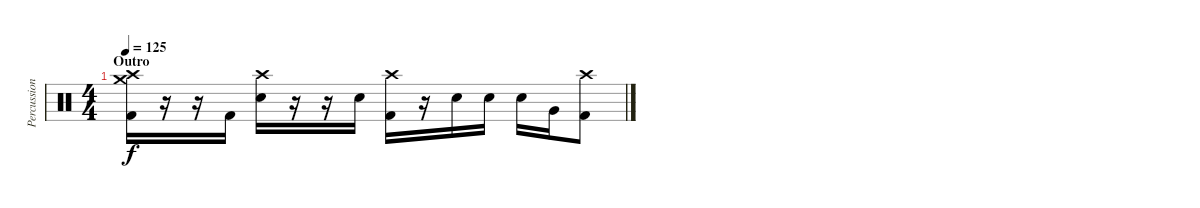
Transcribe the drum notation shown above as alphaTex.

\track ("Percussion" "Percussion") {instrument percussion}
\staff {score}
\articulation defaults
\ts (4 4)
\section ("" "Outro")
\tempo 125
\clef neutral
\ks c
("Crash medium (hit)" "Crash high (hit)" "Kick (hit) 2").16{dy f} r.16 r.16 "Kick (hit) 2".16 ("Crash high (hit)" "Electric Snare (hit)").16 r.16 r.16 "Electric Snare (hit)".16 ("Crash high (hit)" "Kick (hit) 2").16 r.16 "Electric Snare (hit)".16 "Electric Snare (hit)".16 "Electric Snare (hit)".16 "Very Low Tom (hit)".16 ("Crash high (hit)" "Kick (hit) 2").8
